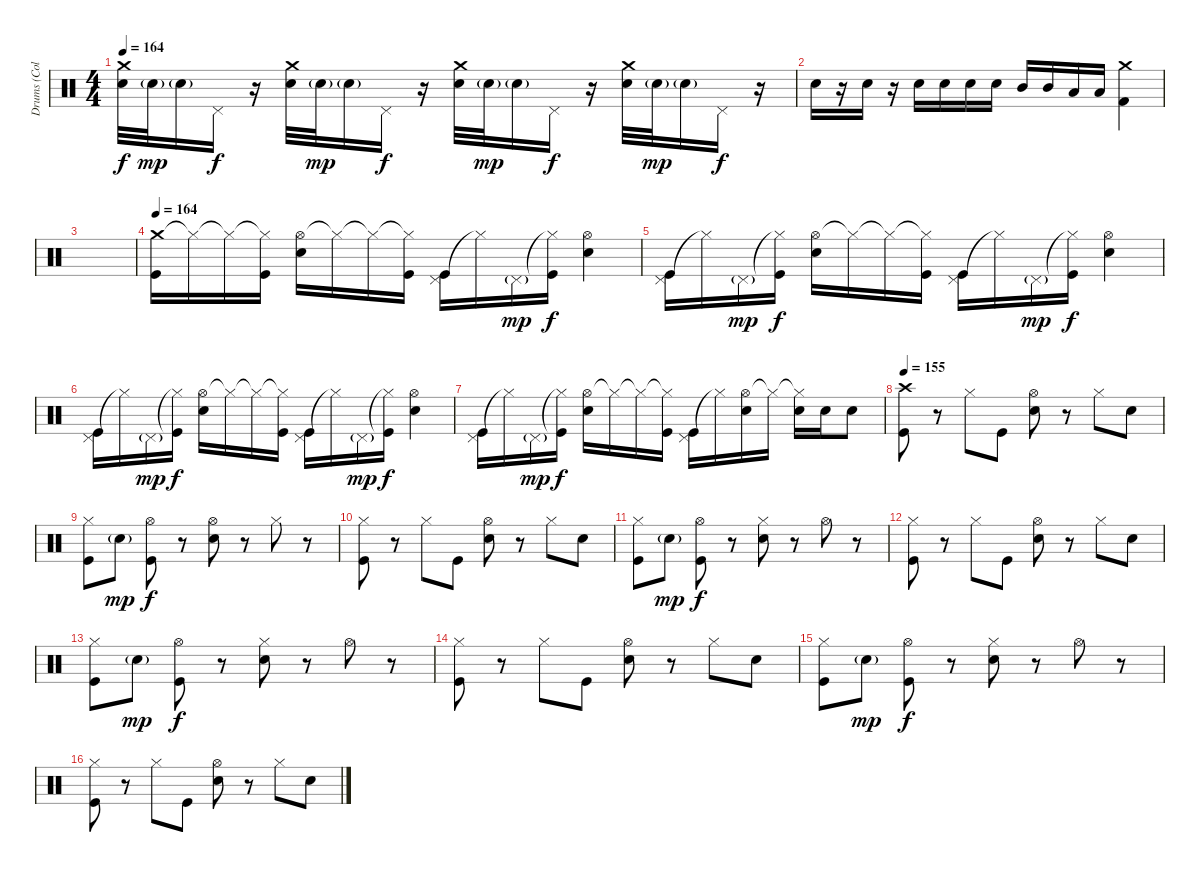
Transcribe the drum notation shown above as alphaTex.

\track ("Drums (Collins)" "Drums (Col") {instrument percussion}
\staff {score}
\articulation defaults
\ts (4 4)
\tempo 164
\clef neutral
\ks c
("Crash medium (hit)" "Snare (hit) 2").32{dy f} "Snare (hit) 2"{g}.32{dy mp} "Snare (hit) 2"{g}.16 "Pedal Hi-Hat (hit)".16{dy f} r.16 ("Crash medium (hit)" "Snare (hit) 2").32 "Snare (hit) 2"{g}.32{dy mp} "Snare (hit) 2"{g}.16 "Pedal Hi-Hat (hit)".16{dy f} r.16 ("Crash medium (hit)" "Snare (hit) 2").32 "Snare (hit) 2"{g}.32{dy mp} "Snare (hit) 2"{g}.16 "Pedal Hi-Hat (hit)".16{dy f} r.16 ("Crash medium (hit)" "Snare (hit) 2").32 "Snare (hit) 2"{g}.32{dy mp} "Snare (hit) 2"{g}.16 "Pedal Hi-Hat (hit)".16{dy f} r.16 |
"Snare (hit) 2".16 r.16 "Snare (hit) 2".16 r.16 "Snare (hit) 2".16 "Snare (hit) 2".16 "Snare (hit) 2".16 "Snare (hit) 2".16 "Mid Tom (hit)".16 "Mid Tom (hit)".16 "Low Tom (hit)".16 "Low Tom (hit)".16 ("Crash medium (hit)" "Kick (hit) 2").4 |
|
\tempo 164
("Crash medium (hit)" "Kick (hit)").16 "Hi-Hat (closed)"{t}.16 "Hi-Hat (closed)"{t}.16 ("Hi-Hat (closed)"{t} "Kick (hit)").16 ("Hi-Hat (open)" "Snare (hit) 2").16 "Hi-Hat (closed)"{t}.16 "Hi-Hat (closed)"{t}.16 ("Hi-Hat (closed)"{t} "Kick (hit)").16 ("Pedal Hi-Hat (hit)" "Kick (hit)").16 "Hi-Hat (closed)"{t}.16 "Pedal Hi-Hat (hit)"{g}.16{dy mp} ("Hi-Hat (closed)"{t} "Kick (hit)").16{dy f} ("Hi-Hat (open)" "Snare (hit) 2").4 |
("Pedal Hi-Hat (hit)" "Kick (hit)").16 "Hi-Hat (closed)"{t}.16 "Pedal Hi-Hat (hit)"{g}.16{dy mp} ("Hi-Hat (closed)"{t} "Kick (hit)").16{dy f} ("Hi-Hat (open)" "Snare (hit) 2").16 "Hi-Hat (closed)"{t}.16 "Hi-Hat (closed)"{t}.16 ("Hi-Hat (closed)"{t} "Kick (hit)").16 ("Pedal Hi-Hat (hit)" "Kick (hit)").16 "Hi-Hat (closed)"{t}.16 "Pedal Hi-Hat (hit)"{g}.16{dy mp} ("Hi-Hat (closed)"{t} "Kick (hit)").16{dy f} ("Hi-Hat (open)" "Snare (hit) 2").4 |
("Pedal Hi-Hat (hit)" "Kick (hit)").16 "Hi-Hat (closed)"{t}.16 "Pedal Hi-Hat (hit)"{g}.16{dy mp} ("Hi-Hat (closed)"{t} "Kick (hit)").16{dy f} ("Hi-Hat (open)" "Snare (hit) 2").16 "Hi-Hat (closed)"{t}.16 "Hi-Hat (closed)"{t}.16 ("Hi-Hat (closed)"{t} "Kick (hit)").16 ("Pedal Hi-Hat (hit)" "Kick (hit)").16 "Hi-Hat (closed)"{t}.16 "Pedal Hi-Hat (hit)"{g}.16{dy mp} ("Hi-Hat (closed)"{t} "Kick (hit)").16{dy f} ("Hi-Hat (open)" "Snare (hit) 2").4 |
("Pedal Hi-Hat (hit)" "Kick (hit)").16 "Hi-Hat (closed)"{t}.16 "Pedal Hi-Hat (hit)"{g}.16{dy mp} ("Hi-Hat (closed)"{t} "Kick (hit)").16{dy f} ("Hi-Hat (open)" "Snare (hit) 2").16 "Hi-Hat (closed)"{t}.16 "Hi-Hat (closed)"{t}.16 ("Hi-Hat (closed)"{t} "Kick (hit)").16 ("Pedal Hi-Hat (hit)" "Kick (hit)").16 "Hi-Hat (closed)"{t}.16 ("Hi-Hat (open)" "Snare (hit) 2").16 "Hi-Hat (closed)"{t}.16 ("Hi-Hat (closed)"{t} "Snare (hit) 2").16 "Snare (hit) 2".16 "Snare (hit) 2".8 |
\tempo 155
("Crash high (hit)" "Kick (hit)").8 r.8 "Hi-Hat (closed)".8 "Kick (hit)".8 ("Hi-Hat (open)" "Snare (hit) 2").8 r.8 "Hi-Hat (closed)".8 "Snare (hit) 2".8 |
("Hi-Hat (closed)" "Kick (hit)").8 "Snare (hit) 2"{g}.8{dy mp} ("Hi-Hat (open)" "Kick (hit)").8{dy f} r.8 ("Hi-Hat (open)" "Snare (hit) 2").8 r.8 "Hi-Hat (closed)".8 r.8 |
("Hi-Hat (closed)" "Kick (hit)").8 r.8 "Hi-Hat (closed)".8 "Kick (hit)".8 ("Hi-Hat (open)" "Snare (hit) 2").8 r.8 "Hi-Hat (closed)".8 "Snare (hit) 2".8 |
("Hi-Hat (closed)" "Kick (hit)").8 "Snare (hit) 2"{g}.8{dy mp} ("Hi-Hat (open)" "Kick (hit)").8{dy f} r.8 ("Hi-Hat (closed)" "Snare (hit) 2").8 r.8 "Hi-Hat (open)".8 r.8 |
("Hi-Hat (closed)" "Kick (hit)").8 r.8 "Hi-Hat (closed)".8 "Kick (hit)".8 ("Hi-Hat (open)" "Snare (hit) 2").8 r.8 "Hi-Hat (closed)".8 "Snare (hit) 2".8 |
("Hi-Hat (closed)" "Kick (hit)").8 "Snare (hit) 2"{g}.8{dy mp} ("Hi-Hat (open)" "Kick (hit)").8{dy f} r.8 ("Hi-Hat (closed)" "Snare (hit) 2").8 r.8 "Hi-Hat (open)".8 r.8 |
("Hi-Hat (closed)" "Kick (hit)").8 r.8 "Hi-Hat (closed)".8 "Kick (hit)".8 ("Hi-Hat (open)" "Snare (hit) 2").8 r.8 "Hi-Hat (closed)".8 "Snare (hit) 2".8 |
("Hi-Hat (closed)" "Kick (hit)").8 "Snare (hit) 2"{g}.8{dy mp} ("Hi-Hat (open)" "Kick (hit)").8{dy f} r.8 ("Hi-Hat (closed)" "Snare (hit) 2").8 r.8 "Hi-Hat (open)".8 r.8 |
("Hi-Hat (closed)" "Kick (hit)").8 r.8 "Hi-Hat (closed)".8 "Kick (hit)".8 ("Hi-Hat (open)" "Snare (hit) 2").8 r.8 "Hi-Hat (closed)".8 "Snare (hit) 2".8
